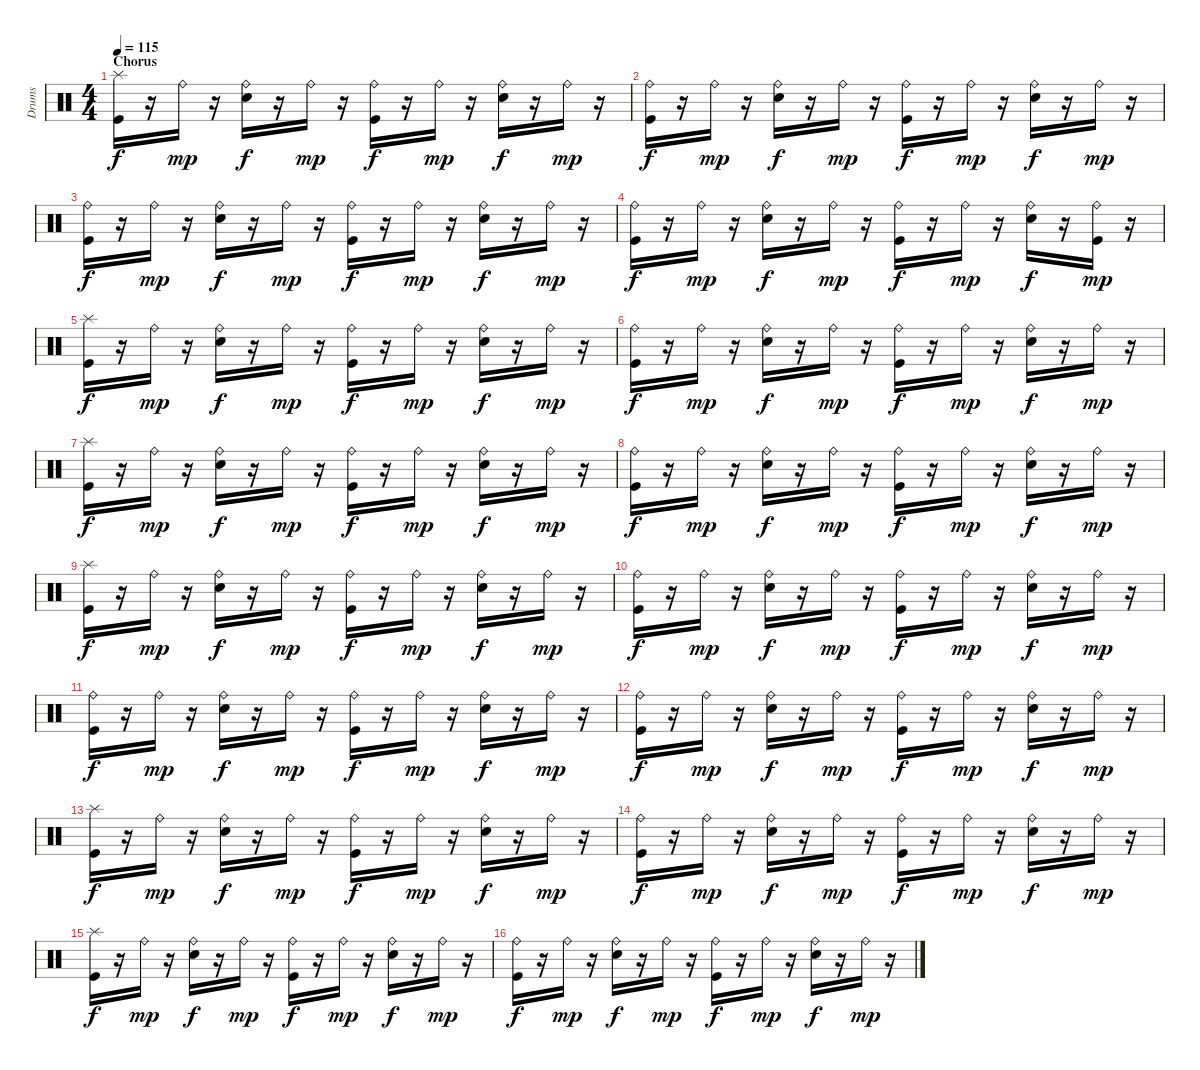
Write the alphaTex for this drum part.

\track ("Drums" "Drums") {instrument percussion}
\staff {score}
\articulation defaults
\ts (4 4)
\section ("" "Chorus")
\tempo 115
\clef neutral
\ks c
("Splash (hit)" "Kick (hit)").16{dy f} r.16 "Ride (bell)".16{dy mp} r.16 ("Ride (bell)" "Electric Snare (hit)").16{dy f} r.16 "Ride (bell)".16{dy mp} r.16 ("Ride (bell)" "Kick (hit)").16{dy f} r.16 "Ride (bell)".16{dy mp} r.16 ("Ride (bell)" "Electric Snare (hit)").16{dy f} r.16 "Ride (bell)".16{dy mp} r.16 |
("Ride (bell)" "Kick (hit)").16{dy f} r.16 "Ride (bell)".16{dy mp} r.16 ("Ride (bell)" "Electric Snare (hit)").16{dy f} r.16 "Ride (bell)".16{dy mp} r.16 ("Ride (bell)" "Kick (hit)").16{dy f} r.16 "Ride (bell)".16{dy mp} r.16 ("Ride (bell)" "Electric Snare (hit)").16{dy f} r.16 "Ride (bell)".16{dy mp} r.16 |
("Ride (bell)" "Kick (hit)").16{dy f} r.16 "Ride (bell)".16{dy mp} r.16 ("Ride (bell)" "Electric Snare (hit)").16{dy f} r.16 "Ride (bell)".16{dy mp} r.16 ("Ride (bell)" "Kick (hit)").16{dy f} r.16 "Ride (bell)".16{dy mp} r.16 ("Ride (bell)" "Electric Snare (hit)").16{dy f} r.16 "Ride (bell)".16{dy mp} r.16 |
("Ride (bell)" "Kick (hit)").16{dy f} r.16 "Ride (bell)".16{dy mp} r.16 ("Ride (bell)" "Electric Snare (hit)").16{dy f} r.16 "Ride (bell)".16{dy mp} r.16 ("Ride (bell)" "Kick (hit)").16{dy f} r.16 "Ride (bell)".16{dy mp} r.16 ("Ride (bell)" "Electric Snare (hit)").16{dy f} r.16 ("Ride (bell)" "Kick (hit)").16{dy mp} r.16 |
("Splash (hit)" "Kick (hit)").16{dy f} r.16 "Ride (bell)".16{dy mp} r.16 ("Ride (bell)" "Electric Snare (hit)").16{dy f} r.16 "Ride (bell)".16{dy mp} r.16 ("Ride (bell)" "Kick (hit)").16{dy f} r.16 "Ride (bell)".16{dy mp} r.16 ("Ride (bell)" "Electric Snare (hit)").16{dy f} r.16 "Ride (bell)".16{dy mp} r.16 |
("Ride (bell)" "Kick (hit)").16{dy f} r.16 "Ride (bell)".16{dy mp} r.16 ("Ride (bell)" "Electric Snare (hit)").16{dy f} r.16 "Ride (bell)".16{dy mp} r.16 ("Ride (bell)" "Kick (hit)").16{dy f} r.16 "Ride (bell)".16{dy mp} r.16 ("Ride (bell)" "Electric Snare (hit)").16{dy f} r.16 "Ride (bell)".16{dy mp} r.16 |
("Splash (hit)" "Kick (hit)").16{dy f} r.16 "Ride (bell)".16{dy mp} r.16 ("Ride (bell)" "Electric Snare (hit)").16{dy f} r.16 "Ride (bell)".16{dy mp} r.16 ("Ride (bell)" "Kick (hit)").16{dy f} r.16 "Ride (bell)".16{dy mp} r.16 ("Ride (bell)" "Electric Snare (hit)").16{dy f} r.16 "Ride (bell)".16{dy mp} r.16 |
("Ride (bell)" "Kick (hit)").16{dy f} r.16 "Ride (bell)".16{dy mp} r.16 ("Ride (bell)" "Electric Snare (hit)").16{dy f} r.16 "Ride (bell)".16{dy mp} r.16 ("Ride (bell)" "Kick (hit)").16{dy f} r.16 "Ride (bell)".16{dy mp} r.16 ("Ride (bell)" "Electric Snare (hit)").16{dy f} r.16 "Ride (bell)".16{dy mp} r.16 |
("Splash (hit)" "Kick (hit)").16{dy f} r.16 "Ride (bell)".16{dy mp} r.16 ("Ride (bell)" "Electric Snare (hit)").16{dy f} r.16 "Ride (bell)".16{dy mp} r.16 ("Ride (bell)" "Kick (hit)").16{dy f} r.16 "Ride (bell)".16{dy mp} r.16 ("Ride (bell)" "Electric Snare (hit)").16{dy f} r.16 "Ride (bell)".16{dy mp} r.16 |
("Ride (bell)" "Kick (hit)").16{dy f} r.16 "Ride (bell)".16{dy mp} r.16 ("Ride (bell)" "Electric Snare (hit)").16{dy f} r.16 "Ride (bell)".16{dy mp} r.16 ("Ride (bell)" "Kick (hit)").16{dy f} r.16 "Ride (bell)".16{dy mp} r.16 ("Ride (bell)" "Electric Snare (hit)").16{dy f} r.16 "Ride (bell)".16{dy mp} r.16 |
("Ride (bell)" "Kick (hit)").16{dy f} r.16 "Ride (bell)".16{dy mp} r.16 ("Ride (bell)" "Electric Snare (hit)").16{dy f} r.16 "Ride (bell)".16{dy mp} r.16 ("Ride (bell)" "Kick (hit)").16{dy f} r.16 "Ride (bell)".16{dy mp} r.16 ("Ride (bell)" "Electric Snare (hit)").16{dy f} r.16 "Ride (bell)".16{dy mp} r.16 |
("Ride (bell)" "Kick (hit)").16{dy f} r.16 "Ride (bell)".16{dy mp} r.16 ("Ride (bell)" "Electric Snare (hit)").16{dy f} r.16 "Ride (bell)".16{dy mp} r.16 ("Ride (bell)" "Kick (hit)").16{dy f} r.16 "Ride (bell)".16{dy mp} r.16 ("Ride (bell)" "Electric Snare (hit)").16{dy f} r.16 "Ride (bell)".16{dy mp} r.16 |
("Splash (hit)" "Kick (hit)").16{dy f} r.16 "Ride (bell)".16{dy mp} r.16 ("Ride (bell)" "Electric Snare (hit)").16{dy f} r.16 "Ride (bell)".16{dy mp} r.16 ("Ride (bell)" "Kick (hit)").16{dy f} r.16 "Ride (bell)".16{dy mp} r.16 ("Ride (bell)" "Electric Snare (hit)").16{dy f} r.16 "Ride (bell)".16{dy mp} r.16 |
("Ride (bell)" "Kick (hit)").16{dy f} r.16 "Ride (bell)".16{dy mp} r.16 ("Ride (bell)" "Electric Snare (hit)").16{dy f} r.16 "Ride (bell)".16{dy mp} r.16 ("Ride (bell)" "Kick (hit)").16{dy f} r.16 "Ride (bell)".16{dy mp} r.16 ("Ride (bell)" "Electric Snare (hit)").16{dy f} r.16 "Ride (bell)".16{dy mp} r.16 |
("Splash (hit)" "Kick (hit)").16{dy f} r.16 "Ride (bell)".16{dy mp} r.16 ("Ride (bell)" "Electric Snare (hit)").16{dy f} r.16 "Ride (bell)".16{dy mp} r.16 ("Ride (bell)" "Kick (hit)").16{dy f} r.16 "Ride (bell)".16{dy mp} r.16 ("Ride (bell)" "Electric Snare (hit)").16{dy f} r.16 "Ride (bell)".16{dy mp} r.16 |
("Ride (bell)" "Kick (hit)").16{dy f} r.16 "Ride (bell)".16{dy mp} r.16 ("Ride (bell)" "Electric Snare (hit)").16{dy f} r.16 "Ride (bell)".16{dy mp} r.16 ("Ride (bell)" "Kick (hit)").16{dy f} r.16 "Ride (bell)".16{dy mp} r.16 ("Ride (bell)" "Electric Snare (hit)").16{dy f} r.16 "Ride (bell)".16{dy mp} r.16
